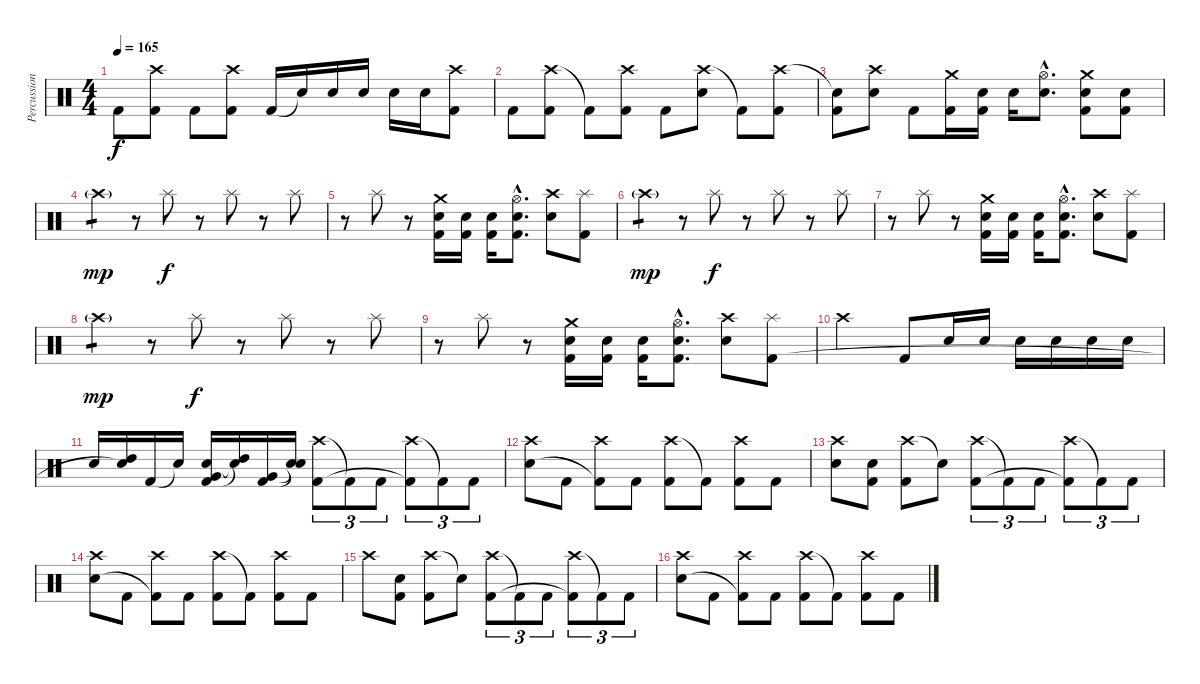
\track ("Percussion" "Percussion") {instrument percussion}
\staff {score}
\articulation defaults
\ts (4 4)
\tempo 165
\clef neutral
\ks c "Kick (hit) 2"{t}.8{dy f}
("Crash high (hit)" "Kick (hit) 2").8 "Kick (hit) 2".8 ("Crash high (hit)" "Kick (hit) 2").8 "Kick (hit) 2".16 "Electric Snare (hit)"{t}.16 "Electric Snare (hit)".16 "Electric Snare (hit)".16 "Electric Snare (hit)".16 "Electric Snare (hit)".16 ("Crash high (hit)" "Kick (hit) 2").8 |
"Kick (hit) 2".8 ("Crash high (hit)" "Kick (hit) 2").8 "Kick (hit) 2"{t}.8 ("Crash high (hit)" "Kick (hit) 2").8 "Kick (hit) 2".8 ("Crash high (hit)" "Electric Snare (hit)").8 "Kick (hit) 2"{t}.8 ("Crash high (hit)" "Kick (hit) 2").8 |
("Electric Snare (hit)"{t} "Kick (hit) 2").8 ("Crash high (hit)" "Electric Snare (hit)").8 "Kick (hit) 2".8 ("Crash medium (hit)" "Kick (hit) 2").16 ("Kick (hit) 2" "Electric Snare (hit)").16 "Electric Snare (hit)".16 ("Hi-Hat (open)"{hac} "Electric Snare (hit)"{hac}).8{d} ("Crash medium (hit)" "Electric Snare (hit)" "Kick (hit) 2").8 ("Electric Snare (hit)" "Kick (hit) 2").8 |
"Crash high (hit)"{g}.4{tp 1 dy mp} r.8 "Splash (hit)".8{dy f} r.8 "Splash (hit)".8 r.8 "Splash (hit)".8 |
r.8 "Splash (hit)".8 r.8 ("Crash medium (hit)" "Electric Snare (hit)" "Kick (hit) 2").16 ("Electric Snare (hit)" "Kick (hit) 2").16 ("Electric Snare (hit)" "Kick (hit) 2").16 ("Hi-Hat (open)"{hac} "Electric Snare (hit)"{hac} "Kick (hit) 2"{hac}).8{d} ("Crash high (hit)" "Electric Snare (hit)").8 ("Splash (hit)" "Kick (hit) 2").8 |
"Crash high (hit)"{g}.4{tp 1 dy mp} r.8 "Splash (hit)".8{dy f} r.8 "Splash (hit)".8 r.8 "Splash (hit)".8 |
r.8 "Splash (hit)".8 r.8 ("Crash medium (hit)" "Electric Snare (hit)" "Kick (hit) 2").16 ("Electric Snare (hit)" "Kick (hit) 2").16 ("Electric Snare (hit)" "Kick (hit) 2").16 ("Hi-Hat (open)"{hac} "Electric Snare (hit)"{hac} "Kick (hit) 2"{hac}).8{d} ("Crash high (hit)" "Electric Snare (hit)").8 ("Splash (hit)" "Kick (hit) 2").8 |
"Crash high (hit)"{g}.4{tp 1 dy mp} r.8 "Splash (hit)".8{dy f} r.8 "Splash (hit)".8 r.8 "Splash (hit)".8 |
r.8 "Splash (hit)".8 r.8 ("Crash medium (hit)" "Electric Snare (hit)" "Kick (hit) 2").16 ("Electric Snare (hit)" "Kick (hit) 2").16 ("Electric Snare (hit)" "Kick (hit) 2").16 ("Hi-Hat (open)"{hac} "Electric Snare (hit)"{hac} "Kick (hit) 2"{hac}).8{d} ("Crash high (hit)" "Electric Snare (hit)").8 ("Splash (hit)" "Kick (hit) 2").8 |
"Crash high (hit)".2 "Kick (hit) 2".8 "Electric Snare (hit)".16 "Electric Snare (hit)".16 "Electric Snare (hit)".16 "Electric Snare (hit)".16 "Electric Snare (hit)".16 "Electric Snare (hit)".16 |
"Electric Snare (hit)".16 ("High Tom (hit)" "Electric Snare (hit)"{t}).16 "Kick (hit) 2".16 "Electric Snare (hit)"{t}.16 ("Kick (hit) 2" "Electric Snare (hit)" "Very Low Tom (hit)").16 ("High Tom (hit)"{t} "Snare (hit)"{t}).16 ("Very Low Tom (hit)" "Kick (hit) 2").16 ("Snare (hit)"{t} "Snare (hit)"{t}).16 ("Crash high (hit)" "Kick (hit) 2").8{tu (3 2)} "Kick (hit) 2"{t}.8{tu (3 2)} "Kick (hit) 2".8{tu (3 2)} ("Crash high (hit)" "Kick (hit) 2"{t}).8{tu (3 2)} "Kick (hit) 2"{t}.8{tu (3 2)} "Kick (hit) 2".8{tu (3 2)} |
("Crash high (hit)" "Electric Snare (hit)").8 "Kick (hit) 2".8 ("Crash high (hit)" "Kick (hit) 2"{t}).8 "Kick (hit) 2".8 ("Crash high (hit)" "Kick (hit) 2").8 "Kick (hit) 2"{t}.8 ("Crash high (hit)" "Kick (hit) 2").8 "Kick (hit) 2".8 |
("Crash high (hit)" "Electric Snare (hit)").8 ("Electric Snare (hit)" "Kick (hit) 2").8 ("Crash high (hit)" "Kick (hit) 2").8 "Electric Snare (hit)"{t}.8 ("Crash high (hit)" "Kick (hit) 2").8{tu (3 2)} "Kick (hit) 2"{t}.8{tu (3 2)} "Kick (hit) 2".8{tu (3 2)} ("Crash high (hit)" "Kick (hit) 2"{t}).8{tu (3 2)} "Kick (hit) 2"{t}.8{tu (3 2)} "Kick (hit) 2".8{tu (3 2)} |
("Crash high (hit)" "Electric Snare (hit)").8 "Kick (hit) 2".8 ("Crash high (hit)" "Kick (hit) 2"{t}).8 "Kick (hit) 2".8 ("Crash high (hit)" "Kick (hit) 2").8 "Kick (hit) 2"{t}.8 ("Crash high (hit)" "Kick (hit) 2").8 "Kick (hit) 2".8 |
"Crash high (hit)".8 ("Electric Snare (hit)" "Kick (hit) 2").8 ("Crash high (hit)" "Kick (hit) 2").8 "Electric Snare (hit)"{t}.8 ("Crash high (hit)" "Kick (hit) 2").8{tu (3 2)} "Kick (hit) 2"{t}.8{tu (3 2)} "Kick (hit) 2".8{tu (3 2)} ("Crash high (hit)" "Kick (hit) 2"{t}).8{tu (3 2)} "Kick (hit) 2"{t}.8{tu (3 2)} "Kick (hit) 2".8{tu (3 2)} |
("Crash high (hit)" "Electric Snare (hit)").8 "Kick (hit) 2".8 ("Crash high (hit)" "Kick (hit) 2"{t}).8 "Kick (hit) 2".8 ("Crash high (hit)" "Kick (hit) 2").8 "Kick (hit) 2"{t}.8 ("Crash high (hit)" "Kick (hit) 2").8 "Kick (hit) 2".8
